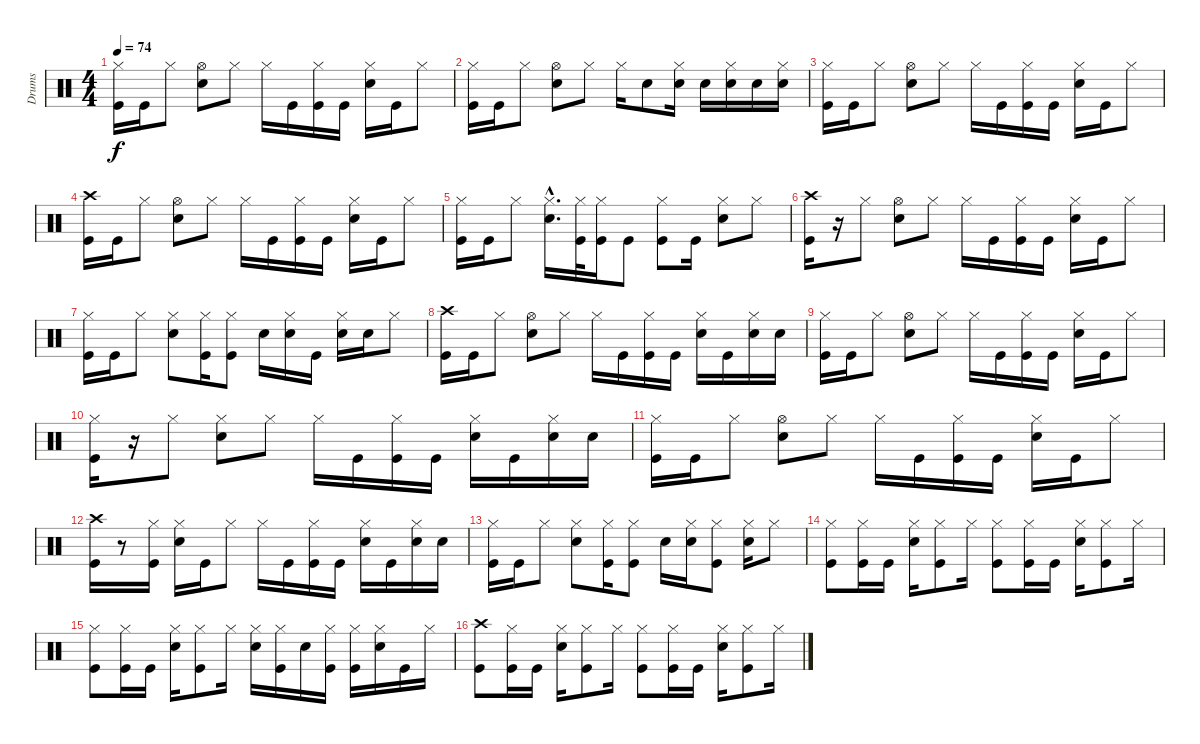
\track ("Drums" "Drums") {instrument percussion}
\staff {score}
\articulation defaults
\ts (4 4)
\tempo 74
\clef neutral
\ks c
("Hi-Hat (closed)" "Kick (hit)").16{dy f} "Kick (hit)".16 "Hi-Hat (closed)".8 ("Hi-Hat (open)" "Snare (hit) 2").8 "Hi-Hat (closed)".8 "Hi-Hat (closed)".16 "Kick (hit)".16 ("Hi-Hat (closed)" "Kick (hit)").16 "Kick (hit)".16 ("Hi-Hat (closed)" "Snare (hit) 2").16 "Kick (hit)".16 "Hi-Hat (closed)".8 |
("Hi-Hat (closed)" "Kick (hit)").16 "Kick (hit)".16 "Hi-Hat (closed)".8 ("Hi-Hat (open)" "Snare (hit) 2").8 "Hi-Hat (closed)".8 "Hi-Hat (closed)".16 "Snare (hit) 2".8 ("Hi-Hat (closed)" "Snare (hit) 2").16 "Snare (hit) 2".16 ("Hi-Hat (closed)" "Snare (hit) 2").16 "Snare (hit) 2".16 ("Hi-Hat (closed)" "Snare (hit) 2").16 |
("Hi-Hat (closed)" "Kick (hit)").16 "Kick (hit)".16 "Hi-Hat (closed)".8 ("Hi-Hat (open)" "Snare (hit) 2").8 "Hi-Hat (closed)".8 "Hi-Hat (closed)".16 "Kick (hit)".16 ("Hi-Hat (closed)" "Kick (hit)").16 "Kick (hit)".16 ("Hi-Hat (closed)" "Snare (hit) 2").16 "Kick (hit)".16 "Hi-Hat (closed)".8 |
("Crash high (hit)" "Kick (hit)").16 "Kick (hit)".16 "Hi-Hat (closed)".8 ("Hi-Hat (open)" "Snare (hit) 2").8 "Hi-Hat (closed)".8 "Hi-Hat (closed)".16 "Kick (hit)".16 ("Hi-Hat (closed)" "Kick (hit)").16 "Kick (hit)".16 ("Hi-Hat (closed)" "Snare (hit) 2").16 "Kick (hit)".16 "Hi-Hat (closed)".8 |
("Hi-Hat (closed)" "Kick (hit)").16 "Kick (hit)".16 "Hi-Hat (closed)".8 ("Hi-Hat (closed)"{hac} "Snare (hit) 2"{hac}).16{d} ("Hi-Hat (closed)" "Kick (hit)").32 ("Hi-Hat (closed)" "Kick (hit)").16 "Kick (hit)".8 ("Hi-Hat (closed)" "Kick (hit)").8 "Kick (hit)".16 ("Hi-Hat (closed)" "Snare (hit) 2").8 "Hi-Hat (closed)".8 |
("Crash high (hit)" "Kick (hit)").16 r.16 "Hi-Hat (closed)".8 ("Hi-Hat (open)" "Snare (hit) 2").8 "Hi-Hat (closed)".8 "Hi-Hat (closed)".16 "Kick (hit)".16 ("Hi-Hat (closed)" "Kick (hit)").16 "Kick (hit)".16 ("Hi-Hat (closed)" "Snare (hit) 2").16 "Kick (hit)".16 "Hi-Hat (closed)".8 |
("Hi-Hat (closed)" "Kick (hit)").16 "Kick (hit)".16 "Hi-Hat (closed)".8 ("Hi-Hat (closed)" "Snare (hit) 2").8 ("Hi-Hat (closed)" "Kick (hit)").16 ("Hi-Hat (closed)" "Kick (hit)").8 "Snare (hit) 2".16 ("Hi-Hat (closed)" "Snare (hit) 2").16 "Kick (hit)".16 ("Hi-Hat (closed)" "Snare (hit) 2").16 "Snare (hit) 2".16 "Hi-Hat (closed)".8 |
("Crash high (hit)" "Kick (hit)").16 "Kick (hit)".16 "Hi-Hat (closed)".8 ("Hi-Hat (open)" "Snare (hit) 2").8 "Hi-Hat (closed)".8 "Hi-Hat (closed)".16 "Kick (hit)".16 ("Hi-Hat (closed)" "Kick (hit)").16 "Kick (hit)".16 ("Hi-Hat (closed)" "Snare (hit) 2").16 "Kick (hit)".16 ("Hi-Hat (closed)" "Snare (hit) 2").16 "Snare (hit) 2".16 |
("Hi-Hat (closed)" "Kick (hit)").16 "Kick (hit)".16 "Hi-Hat (closed)".8 ("Hi-Hat (open)" "Snare (hit) 2").8 "Hi-Hat (closed)".8 "Hi-Hat (closed)".16 "Kick (hit)".16 ("Hi-Hat (closed)" "Kick (hit)").16 "Kick (hit)".16 ("Hi-Hat (closed)" "Snare (hit) 2").16 "Kick (hit)".16 "Hi-Hat (closed)".8 |
("Hi-Hat (closed)" "Kick (hit)").16 r.16 "Hi-Hat (closed)".8 ("Hi-Hat (closed)" "Snare (hit) 2").8 "Hi-Hat (closed)".8 "Hi-Hat (closed)".16 "Kick (hit)".16 ("Hi-Hat (closed)" "Kick (hit)").16 "Kick (hit)".16 ("Hi-Hat (closed)" "Snare (hit) 2").16 "Kick (hit)".16 ("Hi-Hat (closed)" "Snare (hit) 2").16 "Snare (hit) 2".16 |
("Hi-Hat (closed)" "Kick (hit)").16 "Kick (hit)".16 "Hi-Hat (closed)".8 ("Hi-Hat (open)" "Snare (hit) 2").8 "Hi-Hat (closed)".8 "Hi-Hat (closed)".16 "Kick (hit)".16 ("Hi-Hat (closed)" "Kick (hit)").16 "Kick (hit)".16 ("Hi-Hat (closed)" "Snare (hit) 2").16 "Kick (hit)".16 "Hi-Hat (closed)".8 |
("Crash high (hit)" "Kick (hit)").16 r.8 ("Hi-Hat (closed)" "Kick (hit)").16 ("Hi-Hat (closed)" "Snare (hit) 2").16 "Kick (hit)".16 "Hi-Hat (closed)".8 "Hi-Hat (closed)".16 "Kick (hit)".16 ("Hi-Hat (closed)" "Kick (hit)").16 "Kick (hit)".16 ("Hi-Hat (closed)" "Snare (hit) 2").16 "Kick (hit)".16 ("Hi-Hat (closed)" "Snare (hit) 2").16 "Snare (hit) 2".16 |
("Hi-Hat (closed)" "Kick (hit)").16 "Kick (hit)".16 "Hi-Hat (closed)".8 ("Hi-Hat (closed)" "Snare (hit) 2").8 ("Hi-Hat (closed)" "Kick (hit)").16 ("Hi-Hat (closed)" "Kick (hit)").8 "Snare (hit) 2".16 ("Hi-Hat (closed)" "Snare (hit) 2").16 ("Hi-Hat (closed)" "Kick (hit)").8 ("Hi-Hat (closed)" "Snare (hit) 2").16 "Hi-Hat (closed)".8 |
("Hi-Hat (closed)" "Kick (hit)").8 ("Hi-Hat (closed)" "Kick (hit)").16 "Kick (hit)".16 ("Hi-Hat (closed)" "Snare (hit) 2").16 ("Hi-Hat (closed)" "Kick (hit)").8 "Hi-Hat (closed)".16 ("Hi-Hat (closed)" "Kick (hit)").8 ("Hi-Hat (closed)" "Kick (hit)").16 "Kick (hit)".16 ("Hi-Hat (closed)" "Snare (hit) 2").16 ("Hi-Hat (closed)" "Kick (hit)").8 "Hi-Hat (closed)".16 |
("Hi-Hat (closed)" "Kick (hit)").8 ("Hi-Hat (closed)" "Kick (hit)").16 "Kick (hit)".16 ("Hi-Hat (closed)" "Snare (hit) 2").16 ("Hi-Hat (closed)" "Kick (hit)").8 "Hi-Hat (closed)".16 ("Hi-Hat (closed)" "Snare (hit) 2").16 ("Hi-Hat (closed)" "Kick (hit)").16 "Snare (hit) 2".16 ("Hi-Hat (closed)" "Kick (hit)").16 ("Hi-Hat (closed)" "Kick (hit)").16 ("Hi-Hat (closed)" "Snare (hit) 2").16 "Kick (hit)".16 "Hi-Hat (closed)".16 |
("Crash high (hit)" "Kick (hit)").8 ("Hi-Hat (closed)" "Kick (hit)").16 "Kick (hit)".16 ("Hi-Hat (closed)" "Snare (hit) 2").16 ("Hi-Hat (closed)" "Kick (hit)").8 "Hi-Hat (closed)".16 ("Hi-Hat (closed)" "Kick (hit)").8 ("Hi-Hat (closed)" "Kick (hit)").16 "Kick (hit)".16 ("Hi-Hat (closed)" "Snare (hit) 2").16 ("Hi-Hat (closed)" "Kick (hit)").8 "Hi-Hat (closed)".16
